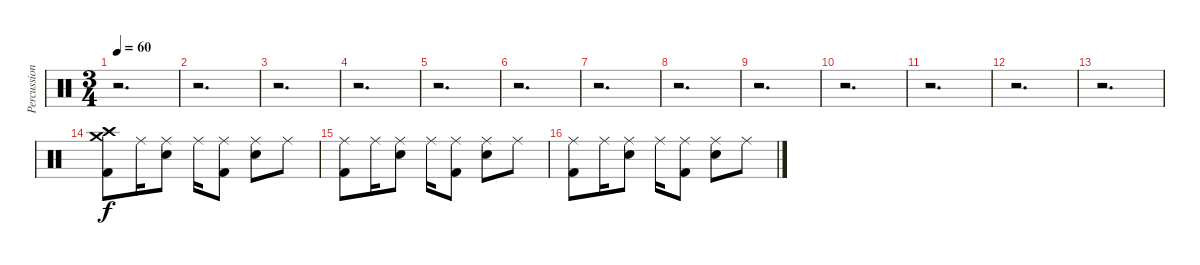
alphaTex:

\track ("Percussion" "Percussion") {instrument percussion}
\staff {score}
\articulation defaults
\ts (3 4)
\tempo 60
\clef neutral
\ks c
r.2{d dy f} |
r.2{d} |
r.2{d} |
r.2{d} |
r.2{d} |
r.2{d} |
r.2{d} |
r.2{d} |
r.2{d} |
r.2{d} |
r.2{d} |
r.2{d} |
r.2{d} |
("Crash high (hit)" "Crash medium (hit)" "Kick (hit) 2").8 "Ride (middle)".16 ("Ride (middle)" "Snare (hit) 2").8 "Ride (middle)".16 ("Ride (middle)" "Kick (hit) 2").8 ("Ride (middle)" "Snare (hit) 2").8 "Ride (middle)".8 |
("Ride (middle)" "Kick (hit) 2").8 "Ride (middle)".16 ("Ride (middle)" "Snare (hit) 2").8 "Ride (middle)".16 ("Ride (middle)" "Kick (hit) 2").8 ("Ride (middle)" "Snare (hit) 2").8 "Ride (middle)".8 |
("Ride (middle)" "Kick (hit) 2").8 "Ride (middle)".16 ("Ride (middle)" "Snare (hit) 2").8 "Ride (middle)".16 ("Ride (middle)" "Kick (hit) 2").8 ("Ride (middle)" "Snare (hit) 2").8 "Ride (middle)".8
